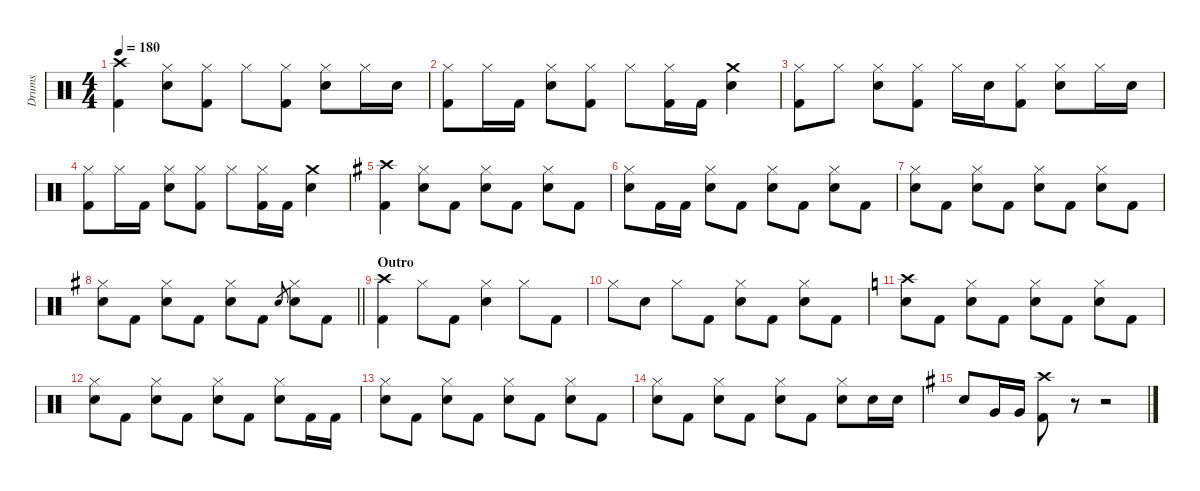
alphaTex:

\defaultSystemsLayout 4
\hideDynamics
\bracketExtendMode nobrackets
\firstSystemTrackNameMode fullname
\otherSystemsTrackNameOrientation horizontal
\track ("Drums" "drm.") {instrument percussion}
\staff {score}
\articulation defaults
\ts (4 4)
\tempo 180
\clef neutral
\ks c
("Crash high (hit)" "Kick (hit) 2").4{dy f beam Down} ("Hi-Hat (closed)" "Snare (hit) 2").8{beam Down} ("Hi-Hat (closed)" "Kick (hit) 2").8{beam Down} "Hi-Hat (closed)".8{beam Down} ("Hi-Hat (closed)" "Kick (hit) 2").8{beam Down} ("Hi-Hat (closed)" "Snare (hit) 2").8{beam Down} "Hi-Hat (closed)".16{beam Down} "Snare (hit) 2".16{beam Down} |
("Hi-Hat (closed)" "Kick (hit) 2").8{dy ff beam Down} "Hi-Hat (closed)".16{beam Down} "Kick (hit) 2".16{dy f beam Down} ("Hi-Hat (closed)" "Snare (hit) 2").8{beam Down} ("Hi-Hat (closed)" "Kick (hit) 2").8{beam Down} "Hi-Hat (closed)".8{beam Down} ("Hi-Hat (closed)" "Kick (hit) 2").16{beam Down} "Kick (hit) 2".16{beam Down} ("Crash medium (hit)" "Snare (hit) 2").4{beam Down} |
("Hi-Hat (closed)" "Kick (hit) 2").8{beam Down} "Hi-Hat (closed)".8{beam Down} ("Hi-Hat (closed)" "Snare (hit) 2").8{beam Down} ("Hi-Hat (closed)" "Kick (hit) 2").8{beam Down} "Hi-Hat (closed)".16{beam Down} "Snare (hit) 2".16{dy p beam Down} ("Hi-Hat (closed)" "Kick (hit) 2").8{dy f beam Down} ("Hi-Hat (closed)" "Snare (hit) 2").8{beam Down} "Hi-Hat (closed)".16{beam Down} "Snare (hit) 2".16{beam Down} |
("Hi-Hat (closed)" "Kick (hit) 2").8{dy ff beam Down} "Hi-Hat (closed)".16{beam Down} "Kick (hit) 2".16{dy f beam Down} ("Hi-Hat (closed)" "Snare (hit) 2").8{beam Down} ("Hi-Hat (closed)" "Kick (hit) 2").8{beam Down} "Hi-Hat (closed)".8{beam Down} ("Hi-Hat (closed)" "Kick (hit) 2").16{beam Down} "Kick (hit) 2".16{beam Down} ("Crash medium (hit)" "Snare (hit) 2").4{beam Down} |
\ks g
("Crash high (hit)"{acc forcenatural} "Kick (hit) 2"{acc forcenatural}).4{beam Down} ("Hi-Hat (closed)"{acc forcenatural} "Snare (hit) 2"{acc forcenatural}).8{beam Down} "Kick (hit) 2"{acc forcenatural}.8{beam Down} ("Hi-Hat (closed)"{acc forcenatural} "Snare (hit) 2"{acc forcenatural}).8{beam Down} "Kick (hit) 2"{acc forcenatural}.8{beam Down} ("Hi-Hat (closed)"{acc forcenatural} "Snare (hit) 2"{acc forcenatural}).8{beam Down} "Kick (hit) 2"{acc forcenatural}.8{beam Down} |
("Hi-Hat (closed)"{acc forcenatural} "Snare (hit) 2"{acc forcenatural}).8{beam Down} "Kick (hit) 2"{acc forcenatural}.16{beam Down} "Kick (hit) 2"{acc forcenatural}.16{beam Down} ("Hi-Hat (closed)"{acc forcenatural} "Snare (hit) 2"{acc forcenatural}).8{beam Down} "Kick (hit) 2"{acc forcenatural}.8{beam Down} ("Hi-Hat (closed)"{acc forcenatural} "Snare (hit) 2"{acc forcenatural}).8{beam Down} "Kick (hit) 2"{acc forcenatural}.8{beam Down} ("Hi-Hat (closed)"{acc forcenatural} "Snare (hit) 2"{acc forcenatural}).8{beam Down} "Kick (hit) 2"{acc forcenatural}.8{beam Down} |
("Hi-Hat (closed)"{acc forcenatural} "Snare (hit) 2"{acc forcenatural}).8{beam Down} "Kick (hit) 2"{acc forcenatural}.8{beam Down} ("Hi-Hat (closed)"{acc forcenatural} "Snare (hit) 2"{acc forcenatural}).8{beam Down} "Kick (hit) 2"{acc forcenatural}.8{beam Down} ("Hi-Hat (closed)"{acc forcenatural} "Snare (hit) 2"{acc forcenatural}).8{beam Down} "Kick (hit) 2"{acc forcenatural}.8{beam Down} ("Hi-Hat (closed)"{acc forcenatural} "Snare (hit) 2"{acc forcenatural}).8{beam Down} "Kick (hit) 2"{acc forcenatural}.8{beam Down} |
\barLineRight lightlight
("Hi-Hat (closed)"{acc forcenatural} "Snare (hit) 2"{acc forcenatural}).8{beam Down} "Kick (hit) 2"{acc forcenatural}.8{beam Down} ("Hi-Hat (closed)"{acc forcenatural} "Snare (hit) 2"{acc forcenatural}).8{beam Down} "Kick (hit) 2"{acc forcenatural}.8{beam Down} ("Hi-Hat (closed)"{acc forcenatural} "Snare (hit) 2"{acc forcenatural}).8{beam Down} "Kick (hit) 2"{acc forcenatural}.8{beam Down} "Snare (hit) 2"{acc forcenatural}.8{gr dy mf beam Up} ("Hi-Hat (closed)"{acc forcenatural} "Snare (hit) 2"{acc forcenatural}).8{dy f beam Down} "Kick (hit) 2"{acc forcenatural}.8{beam Down} |
\section ("" "Outro")
("Crash high (hit)"{acc forcenatural} "Kick (hit) 2"{acc forcenatural}).4{beam Down} "Hi-Hat (closed)"{acc forcenatural}.8{beam Down} "Kick (hit) 2"{acc forcenatural}.8{beam Down} ("Hi-Hat (closed)"{acc forcenatural} "Snare (hit) 2"{acc forcenatural}).4{beam Down} "Hi-Hat (closed)"{acc forcenatural}.8{beam Down} "Kick (hit) 2"{acc forcenatural}.8{beam Down} |
"Hi-Hat (closed)"{acc forcenatural}.8{beam Down} "Snare (hit) 2"{acc forcenatural}.8{beam Down} "Hi-Hat (closed)"{acc forcenatural}.8{beam Down} "Kick (hit) 2"{acc forcenatural}.8{beam Down} ("Hi-Hat (closed)"{acc forcenatural} "Snare (hit) 2"{acc forcenatural}).8{beam Down} "Kick (hit) 2"{acc forcenatural}.8{beam Down} ("Hi-Hat (closed)"{acc forcenatural} "Snare (hit) 2"{acc forcenatural}).8{beam Down} "Kick (hit) 2"{acc forcenatural}.8{beam Down} |
\ks c
("Crash high (hit)" "Snare (hit) 2").8{beam Down} "Kick (hit) 2".8{beam Down} ("Hi-Hat (closed)" "Snare (hit) 2").8{beam Down} "Kick (hit) 2".8{beam Down} ("Hi-Hat (closed)" "Snare (hit) 2").8{beam Down} "Kick (hit) 2".8{beam Down} ("Hi-Hat (closed)" "Snare (hit) 2").8{beam Down} "Kick (hit) 2".8{beam Down} |
("Hi-Hat (closed)" "Snare (hit) 2").8{beam Down} "Kick (hit) 2".8{beam Down} ("Hi-Hat (closed)" "Snare (hit) 2").8{beam Down} "Kick (hit) 2".8{beam Down} ("Hi-Hat (closed)" "Snare (hit) 2").8{beam Down} "Kick (hit) 2".8{beam Down} ("Hi-Hat (closed)" "Snare (hit) 2").8{beam Down} "Kick (hit) 2".16{beam Down} "Kick (hit) 2".16{beam Down} |
("Hi-Hat (closed)" "Snare (hit) 2").8{beam Down} "Kick (hit) 2".8{beam Down} ("Hi-Hat (closed)" "Snare (hit) 2").8{beam Down} "Kick (hit) 2".8{beam Down} ("Hi-Hat (closed)" "Snare (hit) 2").8{beam Down} "Kick (hit) 2".8{beam Down} ("Hi-Hat (closed)" "Snare (hit) 2").8{beam Down} "Kick (hit) 2".8{beam Down} |
("Hi-Hat (closed)" "Snare (hit) 2").8{beam Down} "Kick (hit) 2".8{beam Down} ("Hi-Hat (closed)" "Snare (hit) 2").8{beam Down} "Kick (hit) 2".8{beam Down} ("Hi-Hat (closed)" "Snare (hit) 2").8{beam Down} "Kick (hit) 2".8{beam Down} ("Hi-Hat (closed)" "Snare (hit) 2").8{beam Down} "Snare (hit) 2".16{beam Down} "Snare (hit) 2".16{beam Down} |
\ks g "Snare (hit) 2"{acc forcenatural}.8{beam Up} "Very Low Tom (hit)"{acc forcenatural}.16{beam Up} "Very Low Tom (hit)"{acc forcenatural}.16{beam Up}
("Crash high (hit)"{acc forcenatural} "Kick (hit) 2"{acc forcenatural}).8{beam Down} r.8{beam Down} r.2{beam Down}
